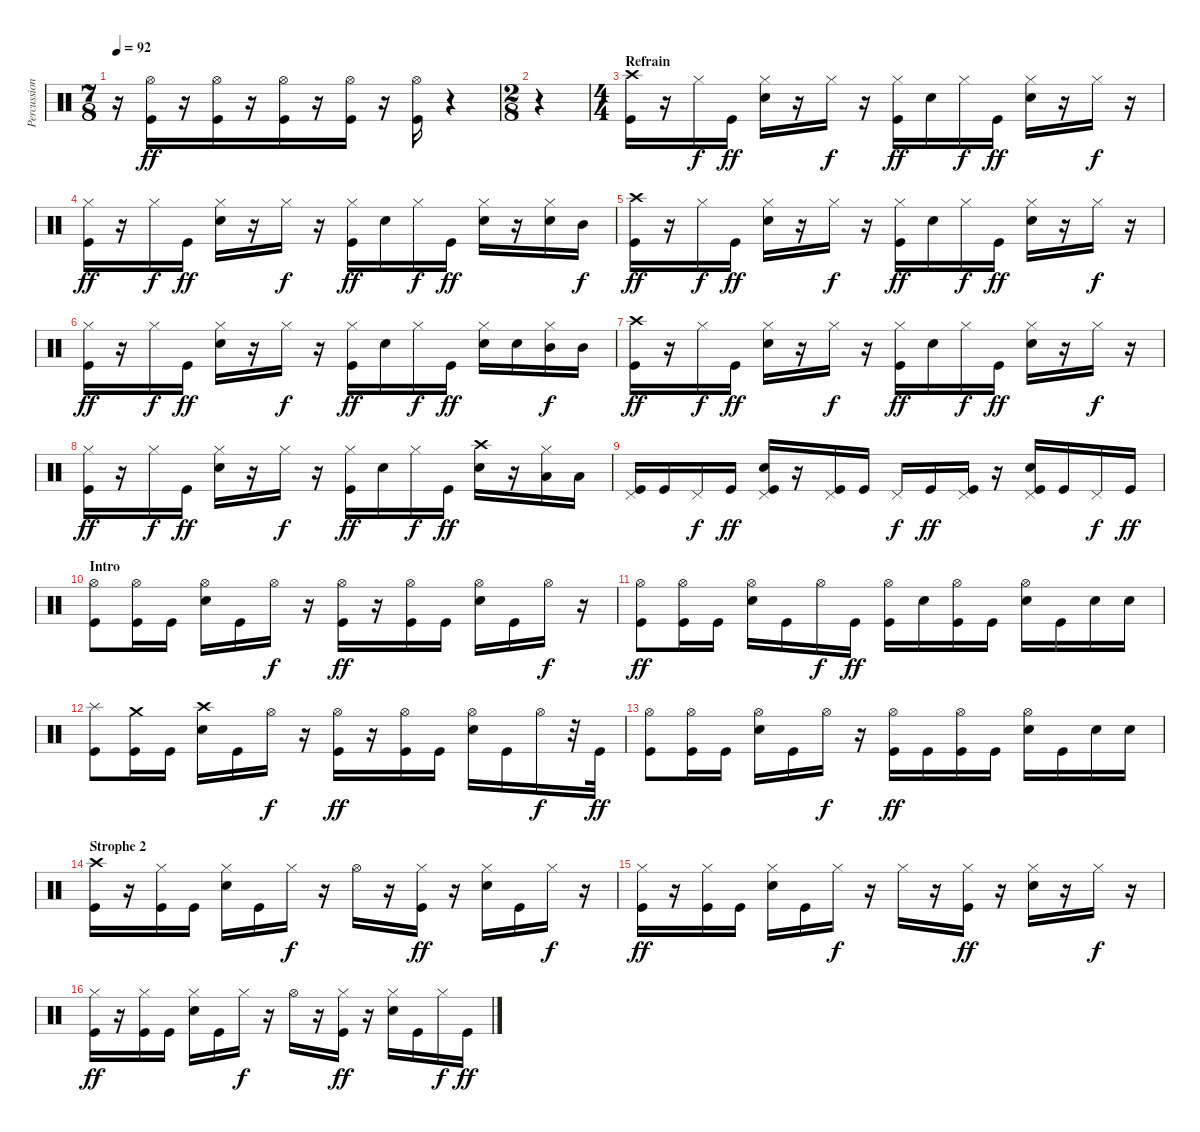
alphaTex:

\track ("Percussions" "Percussion") {instrument percussion}
\staff {score}
\articulation defaults
\ts (7 8)
\tempo 92
\clef neutral
\ks c
r.16{dy ff} ("Hi-Hat (open)" "Kick (hit)").16 r.16 ("Hi-Hat (open)" "Kick (hit)").16 r.16 ("Hi-Hat (open)" "Kick (hit)").16 r.16 ("Hi-Hat (open)" "Kick (hit)").16 r.16 ("Hi-Hat (open)" "Kick (hit)").16 r.4 |
\ts (2 8)
r.4 |
\ts (4 4)
\section ("" "Refrain")
("Crash high (hit)" "Kick (hit)").16 r.16 "Hi-Hat (closed)".16{dy f} "Kick (hit)".16{dy ff} ("Hi-Hat (closed)" "Snare (hit) 2").16 r.16 "Hi-Hat (closed)".16{dy f} r.16 ("Hi-Hat (closed)" "Kick (hit)").16{dy ff} "Snare (hit) 2".16 "Hi-Hat (closed)".16{dy f} "Kick (hit)".16{dy ff} ("Hi-Hat (closed)" "Snare (hit) 2").16 r.16 "Hi-Hat (closed)".16{dy f} r.16 |
("Hi-Hat (closed)" "Kick (hit)").16{dy ff} r.16 "Hi-Hat (closed)".16{dy f} "Kick (hit)".16{dy ff} ("Hi-Hat (closed)" "Snare (hit) 2").16 r.16 "Hi-Hat (closed)".16{dy f} r.16 ("Hi-Hat (closed)" "Kick (hit)").16{dy ff} "Snare (hit) 2".16 "Hi-Hat (closed)".16{dy f} "Kick (hit)".16{dy ff} ("Hi-Hat (closed)" "Snare (hit) 2").16 r.16 ("Hi-Hat (closed)" "Snare (hit) 2").16 "Mid Tom (hit)".16{dy f} |
("Crash high (hit)" "Kick (hit)").16{dy ff} r.16 "Hi-Hat (closed)".16{dy f} "Kick (hit)".16{dy ff} ("Hi-Hat (closed)" "Snare (hit) 2").16 r.16 "Hi-Hat (closed)".16{dy f} r.16 ("Hi-Hat (closed)" "Kick (hit)").16{dy ff} "Snare (hit) 2".16 "Hi-Hat (closed)".16{dy f} "Kick (hit)".16{dy ff} ("Hi-Hat (closed)" "Snare (hit) 2").16 r.16 "Hi-Hat (closed)".16{dy f} r.16 |
("Hi-Hat (closed)" "Kick (hit)").16{dy ff} r.16 "Hi-Hat (closed)".16{dy f} "Kick (hit)".16{dy ff} ("Hi-Hat (closed)" "Snare (hit) 2").16 r.16 "Hi-Hat (closed)".16{dy f} r.16 ("Hi-Hat (closed)" "Kick (hit)").16{dy ff} "Snare (hit) 2".16 "Hi-Hat (closed)".16{dy f} "Kick (hit)".16{dy ff} ("Hi-Hat (closed)" "Snare (hit) 2").16 "Snare (hit) 2".16 ("Hi-Hat (closed)" "Mid Tom (hit)").16{dy f} "Mid Tom (hit)".16 |
("Crash high (hit)" "Kick (hit)").16{dy ff} r.16 "Hi-Hat (closed)".16{dy f} "Kick (hit)".16{dy ff} ("Hi-Hat (closed)" "Snare (hit) 2").16 r.16 "Hi-Hat (closed)".16{dy f} r.16 ("Hi-Hat (closed)" "Kick (hit)").16{dy ff} "Snare (hit) 2".16 "Hi-Hat (closed)".16{dy f} "Kick (hit)".16{dy ff} ("Hi-Hat (closed)" "Snare (hit) 2").16 r.16 "Hi-Hat (closed)".16{dy f} r.16 |
("Hi-Hat (closed)" "Kick (hit)").16{dy ff} r.16 "Hi-Hat (closed)".16{dy f} "Kick (hit)".16{dy ff} ("Hi-Hat (closed)" "Snare (hit) 2").16 r.16 "Hi-Hat (closed)".16{dy f} r.16 ("Hi-Hat (closed)" "Kick (hit)").16{dy ff} "Snare (hit) 2".16 "Hi-Hat (closed)".16{dy f} "Kick (hit)".16{dy ff} ("Crash high (hit)" "Snare (hit) 2").16 r.16 ("Hi-Hat (closed)" "Low Tom (hit)").16 "Low Tom (hit)".16 |
("Pedal Hi-Hat (hit)" "Kick (hit)").16 "Kick (hit)".16 "Pedal Hi-Hat (hit)".16{dy f} "Kick (hit)".16{dy ff} ("Pedal Hi-Hat (hit)" "Snare (hit) 2" "Kick (hit)").16 r.16 ("Pedal Hi-Hat (hit)" "Kick (hit)").16 "Kick (hit)".16 "Pedal Hi-Hat (hit)".16{dy f} "Kick (hit)".16{dy ff} ("Pedal Hi-Hat (hit)" "Kick (hit)").16 r.16 ("Pedal Hi-Hat (hit)" "Snare (hit) 2" "Kick (hit)").16 "Kick (hit)".16 "Pedal Hi-Hat (hit)".16{dy f} "Kick (hit)".16{dy ff} |
\section ("" "Intro")
("Hi-Hat (open)" "Kick (hit)").8 ("Hi-Hat (open)" "Kick (hit)").16 "Kick (hit)".16 ("Hi-Hat (open)" "Snare (hit) 2").16 "Kick (hit)".16 "Hi-Hat (open)".16{dy f} r.16 ("Hi-Hat (open)" "Kick (hit)").16{dy ff} r.16 ("Hi-Hat (open)" "Kick (hit)").16 "Kick (hit)".16 ("Hi-Hat (open)" "Snare (hit) 2").16 "Kick (hit)".16 "Hi-Hat (open)".16{dy f} r.16 |
("Hi-Hat (open)" "Kick (hit)").8{dy ff} ("Hi-Hat (open)" "Kick (hit)").16 "Kick (hit)".16 ("Hi-Hat (open)" "Snare (hit) 2").16 "Kick (hit)".16 "Hi-Hat (open)".16{dy f} "Kick (hit)".16{dy ff} ("Hi-Hat (open)" "Kick (hit)").16 "Snare (hit) 2".16 ("Hi-Hat (open)" "Kick (hit)").16 "Kick (hit)".16 ("Hi-Hat (open)" "Snare (hit) 2").16 "Kick (hit)".16 "Snare (hit) 2".16 "Snare (hit) 2".16 |
("Splash (hit)" "Kick (hit)").8 ("Crash medium (hit)" "Kick (hit)").16 "Kick (hit)".16 ("Crash high (hit)" "Snare (hit) 2").16 "Kick (hit)".16 "Hi-Hat (open)".16{dy f} r.16 ("Hi-Hat (open)" "Kick (hit)").16{dy ff} r.16 ("Hi-Hat (open)" "Kick (hit)").16 "Kick (hit)".16 ("Hi-Hat (open)" "Snare (hit) 2").16 "Kick (hit)".16 "Hi-Hat (open)".16{dy f} r.32 "Kick (hit)".32{dy ff} |
("Hi-Hat (open)" "Kick (hit)").8 ("Hi-Hat (open)" "Kick (hit)").16 "Kick (hit)".16 ("Hi-Hat (open)" "Snare (hit) 2").16 "Kick (hit)".16 "Hi-Hat (open)".16{dy f} r.16 ("Hi-Hat (open)" "Kick (hit)").16{dy ff} "Kick (hit)".16 ("Hi-Hat (open)" "Kick (hit)").16 "Kick (hit)".16 ("Hi-Hat (open)" "Snare (hit) 2").16 "Kick (hit)".16 "Snare (hit) 2".16 "Snare (hit) 2".16 |
\section ("" "Strophe 2")
("Crash high (hit)" "Kick (hit)").16 r.16 ("Hi-Hat (closed)" "Kick (hit)").16 "Kick (hit)".16 ("Hi-Hat (closed)" "Snare (hit) 2").16 "Kick (hit)".16 "Hi-Hat (closed)".16{dy f} r.16 "Hi-Hat (open)".16 r.16 ("Hi-Hat (closed)" "Kick (hit)").16{dy ff} r.16 ("Hi-Hat (closed)" "Snare (hit) 2").16 "Kick (hit)".16 "Hi-Hat (closed)".16{dy f} r.16 |
("Hi-Hat (closed)" "Kick (hit)").16{dy ff} r.16 ("Hi-Hat (closed)" "Kick (hit)").16 "Kick (hit)".16 ("Hi-Hat (closed)" "Snare (hit) 2").16 "Kick (hit)".16 "Hi-Hat (closed)".16{dy f} r.16 "Hi-Hat (closed)".16 r.16 ("Hi-Hat (closed)" "Kick (hit)").16{dy ff} r.16 ("Hi-Hat (closed)" "Snare (hit) 2").16 r.16 "Hi-Hat (closed)".16{dy f} r.16 |
("Hi-Hat (closed)" "Kick (hit)").16{dy ff} r.16 ("Hi-Hat (closed)" "Kick (hit)").16 "Kick (hit)".16 ("Hi-Hat (closed)" "Snare (hit) 2").16 "Kick (hit)".16 "Hi-Hat (closed)".16{dy f} r.16 "Hi-Hat (open)".16 r.16 ("Hi-Hat (closed)" "Kick (hit)").16{dy ff} r.16 ("Hi-Hat (closed)" "Snare (hit) 2").16 "Kick (hit)".16 "Hi-Hat (closed)".16{dy f} "Kick (hit)".16{dy ff}
